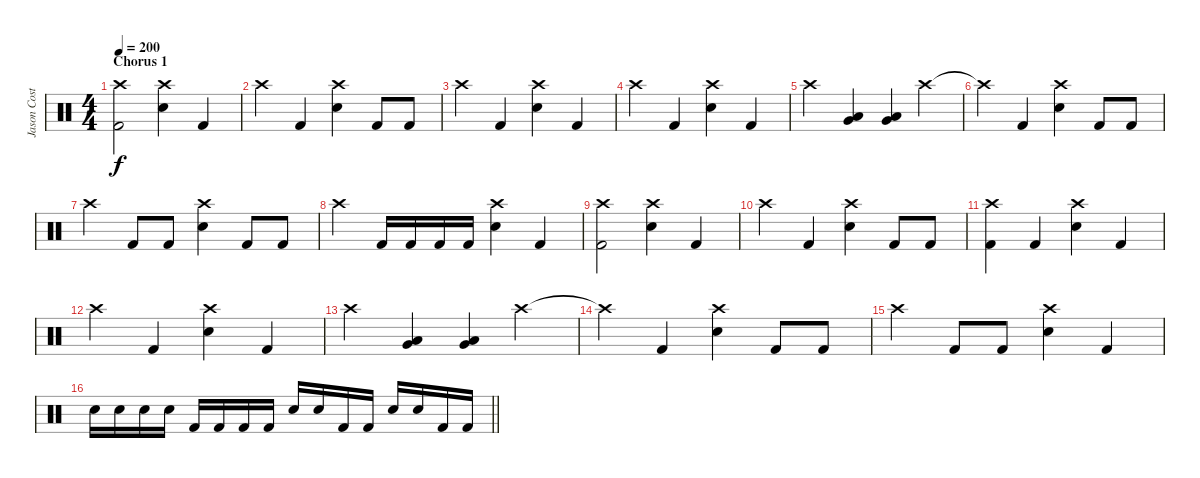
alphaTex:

\track ("Jason Costa" "Jason Cost") {instrument percussion}
\staff {score}
\articulation defaults
\ts (4 4)
\section ("" "Chorus 1")
\tempo 200
\clef neutral
\ks c
("Crash high (hit)" "Kick (hit) 2").2{dy f} ("Crash high (hit)" "Electric Snare (hit)").4 "Kick (hit) 2".4 |
"Crash high (hit)".4 "Kick (hit) 2".4 ("Crash high (hit)" "Electric Snare (hit)").4 "Kick (hit) 2".8 "Kick (hit) 2".8 |
"Crash high (hit)".4 "Kick (hit) 2".4 ("Crash high (hit)" "Electric Snare (hit)").4 "Kick (hit) 2".4 |
"Crash high (hit)".4 "Kick (hit) 2".4 ("Crash high (hit)" "Electric Snare (hit)").4 "Kick (hit) 2".4 |
"Crash high (hit)".4 ("Very Low Tom (hit)" "Low Floor Tom (hit)").4 ("Very Low Tom (hit)" "Low Floor Tom (hit)").4 "Crash high (hit)".4 |
"Crash high (hit)"{t}.4 "Kick (hit) 2".4 ("Crash high (hit)" "Electric Snare (hit)").4 "Kick (hit) 2".8 "Kick (hit) 2".8 |
"Crash high (hit)".4 "Kick (hit) 2".8 "Kick (hit) 2".8 ("Crash high (hit)" "Electric Snare (hit)").4 "Kick (hit) 2".8 "Kick (hit) 2".8 |
"Crash high (hit)".4 "Kick (hit) 2".16 "Kick (hit) 2".16 "Kick (hit) 2".16 "Kick (hit) 2".16 ("Crash high (hit)" "Electric Snare (hit)").4 "Kick (hit) 2".4 |
("Crash high (hit)" "Kick (hit) 2").2 ("Crash high (hit)" "Electric Snare (hit)").4 "Kick (hit) 2".4 |
"Crash high (hit)".4 "Kick (hit) 2".4 ("Crash high (hit)" "Electric Snare (hit)").4 "Kick (hit) 2".8 "Kick (hit) 2".8 |
("Crash high (hit)" "Kick (hit) 2").4 "Kick (hit) 2".4 ("Crash high (hit)" "Electric Snare (hit)").4 "Kick (hit) 2".4 |
"Crash high (hit)".4 "Kick (hit) 2".4 ("Crash high (hit)" "Electric Snare (hit)").4 "Kick (hit) 2".4 |
"Crash high (hit)".4 ("Very Low Tom (hit)" "Low Floor Tom (hit)").4 ("Very Low Tom (hit)" "Low Floor Tom (hit)").4 "Crash high (hit)".4 |
"Crash high (hit)"{t}.4 "Kick (hit) 2".4 ("Crash high (hit)" "Electric Snare (hit)").4 "Kick (hit) 2".8 "Kick (hit) 2".8 |
"Crash high (hit)".4 "Kick (hit) 2".8 "Kick (hit) 2".8 ("Crash high (hit)" "Electric Snare (hit)").4 "Kick (hit) 2".4 |
\barLineRight lightlight "Electric Snare (hit)".16 "Electric Snare (hit)".16 "Electric Snare (hit)".16 "Electric Snare (hit)".16 "Kick (hit) 2".16 "Kick (hit) 2".16 "Kick (hit) 2".16 "Kick (hit) 2".16 "Electric Snare (hit)".16 "Electric Snare (hit)".16 "Kick (hit) 2".16 "Kick (hit) 2".16 "Electric Snare (hit)".16 "Electric Snare (hit)".16 "Kick (hit) 2".16 "Kick (hit) 2".16
